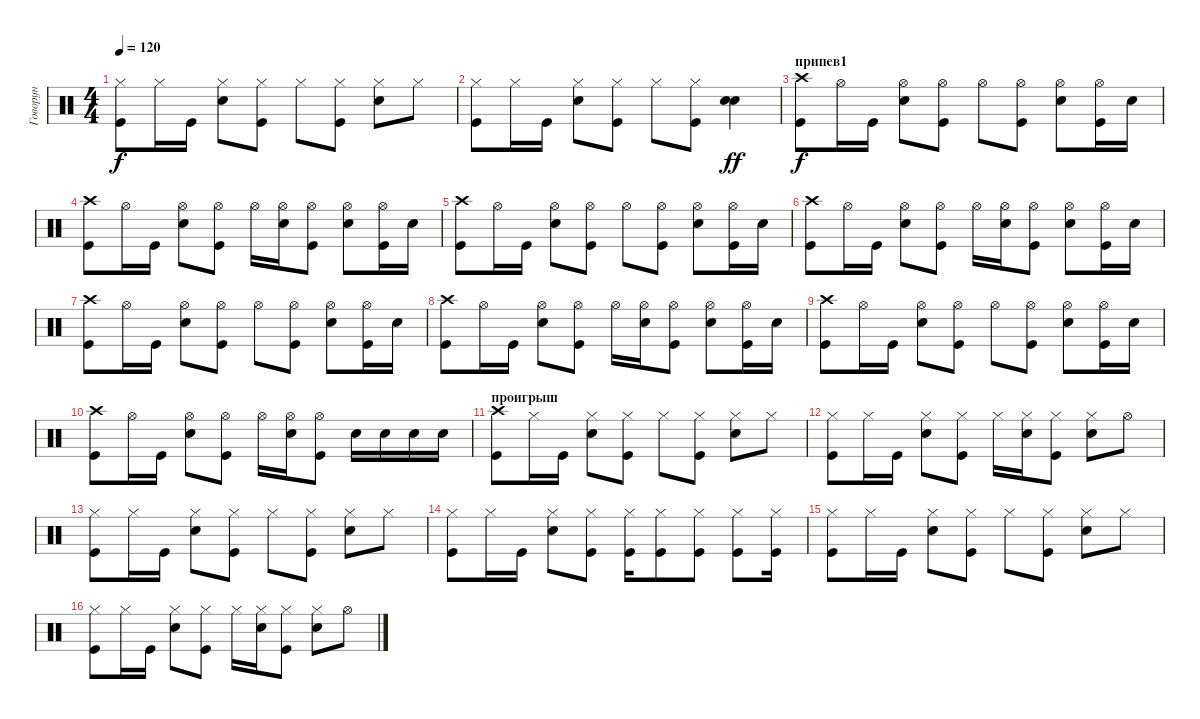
\track ("Говорун" "Говорун") {instrument percussion}
\staff {score}
\articulation defaults
\ts (4 4)
\tempo 120
\clef neutral
\ks c
("Hi-Hat (closed)" "Kick (hit)").8{dy f} "Hi-Hat (closed)".16 "Kick (hit)".16 ("Hi-Hat (closed)" "Snare (hit) 2").8 ("Hi-Hat (closed)" "Kick (hit)").8 "Hi-Hat (closed)".8 ("Hi-Hat (closed)" "Kick (hit)").8 ("Hi-Hat (closed)" "Snare (hit) 2").8 "Hi-Hat (closed)".8 |
("Kick (hit)" "Hi-Hat (closed)").8 "Hi-Hat (closed)".16 "Kick (hit)".16 ("Hi-Hat (closed)" "Snare (hit) 2").8 ("Hi-Hat (closed)" "Kick (hit)").8 "Hi-Hat (closed)".8 ("Hi-Hat (closed)" "Kick (hit)").8 ("Snare (hit) 2" "Snare (hit) 2").4{dy ff} |
\section ("" "припев1")
("Crash high (hit)" "Kick (hit)").8{dy f} "Hi-Hat (open)".16 "Kick (hit)".16 ("Hi-Hat (open)" "Snare (hit) 2").8 ("Hi-Hat (open)" "Kick (hit)").8 "Hi-Hat (open)".8 ("Hi-Hat (open)" "Kick (hit)").8 ("Hi-Hat (open)" "Snare (hit) 2").8 ("Hi-Hat (open)" "Kick (hit)").16 "Snare (hit) 2".16 |
("Crash high (hit)" "Kick (hit)").8 "Hi-Hat (open)".16 "Kick (hit)".16 ("Hi-Hat (open)" "Snare (hit) 2").8 ("Hi-Hat (open)" "Kick (hit)").8 "Hi-Hat (open)".16 ("Hi-Hat (open)" "Snare (hit) 2").16 ("Hi-Hat (open)" "Kick (hit)").8 ("Hi-Hat (open)" "Snare (hit) 2").8 ("Hi-Hat (open)" "Kick (hit)").16 "Snare (hit) 2".16 |
("Crash high (hit)" "Kick (hit)").8 "Hi-Hat (open)".16 "Kick (hit)".16 ("Hi-Hat (open)" "Snare (hit) 2").8 ("Hi-Hat (open)" "Kick (hit)").8 "Hi-Hat (open)".8 ("Hi-Hat (open)" "Kick (hit)").8 ("Hi-Hat (open)" "Snare (hit) 2").8 ("Hi-Hat (open)" "Kick (hit)").16 "Snare (hit) 2".16 |
("Crash high (hit)" "Kick (hit)").8 "Hi-Hat (open)".16 "Kick (hit)".16 ("Hi-Hat (open)" "Snare (hit) 2").8 ("Hi-Hat (open)" "Kick (hit)").8 "Hi-Hat (open)".16 ("Hi-Hat (open)" "Snare (hit) 2").16 ("Hi-Hat (open)" "Kick (hit)").8 ("Hi-Hat (open)" "Snare (hit) 2").8 ("Hi-Hat (open)" "Kick (hit)").16 "Snare (hit) 2".16 |
("Crash high (hit)" "Kick (hit)").8 "Hi-Hat (open)".16 "Kick (hit)".16 ("Hi-Hat (open)" "Snare (hit) 2").8 ("Hi-Hat (open)" "Kick (hit)").8 "Hi-Hat (open)".8 ("Hi-Hat (open)" "Kick (hit)").8 ("Hi-Hat (open)" "Snare (hit) 2").8 ("Hi-Hat (open)" "Kick (hit)").16 "Snare (hit) 2".16 |
("Crash high (hit)" "Kick (hit)").8 "Hi-Hat (open)".16 "Kick (hit)".16 ("Hi-Hat (open)" "Snare (hit) 2").8 ("Hi-Hat (open)" "Kick (hit)").8 "Hi-Hat (open)".16 ("Hi-Hat (open)" "Snare (hit) 2").16 ("Hi-Hat (open)" "Kick (hit)").8 ("Hi-Hat (open)" "Snare (hit) 2").8 ("Hi-Hat (open)" "Kick (hit)").16 "Snare (hit) 2".16 |
("Crash high (hit)" "Kick (hit)").8 "Hi-Hat (open)".16 "Kick (hit)".16 ("Hi-Hat (open)" "Snare (hit) 2").8 ("Hi-Hat (open)" "Kick (hit)").8 "Hi-Hat (open)".8 ("Hi-Hat (open)" "Kick (hit)").8 ("Hi-Hat (open)" "Snare (hit) 2").8 ("Hi-Hat (open)" "Kick (hit)").16 "Snare (hit) 2".16 |
("Crash high (hit)" "Kick (hit)").8 "Hi-Hat (open)".16 "Kick (hit)".16 ("Hi-Hat (open)" "Snare (hit) 2").8 ("Hi-Hat (open)" "Kick (hit)").8 "Hi-Hat (open)".16 ("Hi-Hat (open)" "Snare (hit) 2").16 ("Hi-Hat (open)" "Kick (hit)").8 "Snare (hit) 2".16 "Snare (hit) 2".16 "Snare (hit) 2".16 "Snare (hit) 2".16 |
\section ("" "проигрыш")
("Crash high (hit)" "Kick (hit)").8 "Hi-Hat (closed)".16 "Kick (hit)".16 ("Hi-Hat (closed)" "Snare (hit) 2").8 ("Hi-Hat (closed)" "Kick (hit)").8 "Hi-Hat (closed)".8 ("Hi-Hat (closed)" "Kick (hit)").8 ("Hi-Hat (closed)" "Snare (hit) 2").8 "Hi-Hat (closed)".8 |
\section ("" "")
("Hi-Hat (closed)" "Kick (hit)").8 "Hi-Hat (closed)".16 "Kick (hit)".16 ("Hi-Hat (closed)" "Snare (hit) 2").8 ("Hi-Hat (closed)" "Kick (hit)").8 "Hi-Hat (closed)".16 ("Hi-Hat (closed)" "Snare (hit) 2").16 ("Hi-Hat (closed)" "Kick (hit)").8 ("Hi-Hat (closed)" "Snare (hit) 2").8 "Hi-Hat (open)".8 |
("Hi-Hat (closed)" "Kick (hit)").8 "Hi-Hat (closed)".16 "Kick (hit)".16 ("Hi-Hat (closed)" "Snare (hit) 2").8 ("Hi-Hat (closed)" "Kick (hit)").8 "Hi-Hat (closed)".8 ("Hi-Hat (closed)" "Kick (hit)").8 ("Hi-Hat (closed)" "Snare (hit) 2").8 "Hi-Hat (closed)".8 |
("Hi-Hat (closed)" "Kick (hit)").8 "Hi-Hat (closed)".16 "Kick (hit)".16 ("Hi-Hat (closed)" "Snare (hit) 2").8 ("Hi-Hat (closed)" "Kick (hit)").8 ("Kick (hit)" "Hi-Hat (closed)").16 ("Kick (hit)" "Hi-Hat (closed)").8 ("Kick (hit)" "Hi-Hat (closed)").8 ("Kick (hit)" "Hi-Hat (closed)").8 ("Kick (hit)" "Hi-Hat (closed)").16 |
("Hi-Hat (closed)" "Kick (hit)").8 "Hi-Hat (closed)".16 "Kick (hit)".16 ("Hi-Hat (closed)" "Snare (hit) 2").8 ("Hi-Hat (closed)" "Kick (hit)").8 "Hi-Hat (closed)".8 ("Hi-Hat (closed)" "Kick (hit)").8 ("Hi-Hat (closed)" "Snare (hit) 2").8 "Hi-Hat (closed)".8 |
("Hi-Hat (closed)" "Kick (hit)").8 "Hi-Hat (closed)".16 "Kick (hit)".16 ("Hi-Hat (closed)" "Snare (hit) 2").8 ("Hi-Hat (closed)" "Kick (hit)").8 "Hi-Hat (closed)".16 ("Hi-Hat (closed)" "Snare (hit) 2").16 ("Hi-Hat (closed)" "Kick (hit)").8 ("Hi-Hat (closed)" "Snare (hit) 2").8 "Hi-Hat (open)".8
